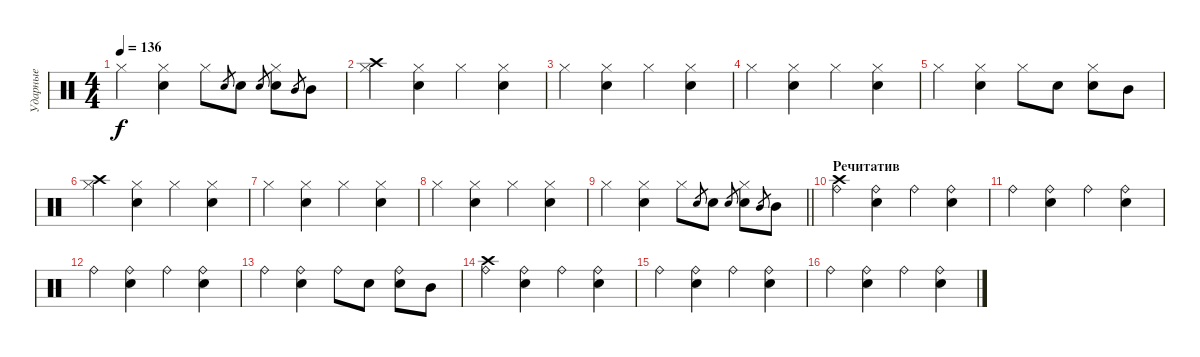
\track ("Ударные" "Ударные") {instrument percussion}
\staff {score}
\articulation defaults
\ts (4 4)
\tempo 136
\clef neutral
\ks c "Hi-Hat (closed)".4{dy f}
("Hi-Hat (closed)" "Snare (hit) 2").4 "Hi-Hat (closed)".8 "Snare (hit) 2".8{gr} "Snare (hit) 2".8 "Snare (hit) 2".8{gr} ("Hi-Hat (closed)" "Snare (hit) 2").8 "Mid Tom (hit)".8{gr} "Mid Tom (hit)".8 |
("Hi-Hat (closed)" "Crash high (hit)").4 ("Hi-Hat (closed)" "Snare (hit) 2").4 "Hi-Hat (closed)".4 ("Hi-Hat (closed)" "Snare (hit) 2").4 |
"Hi-Hat (closed)".4 ("Hi-Hat (closed)" "Snare (hit) 2").4 "Hi-Hat (closed)".4 ("Hi-Hat (closed)" "Snare (hit) 2").4 |
"Hi-Hat (closed)".4 ("Hi-Hat (closed)" "Snare (hit) 2").4 "Hi-Hat (closed)".4 ("Hi-Hat (closed)" "Snare (hit) 2").4 |
"Hi-Hat (closed)".4 ("Hi-Hat (closed)" "Snare (hit) 2").4 "Hi-Hat (closed)".8 "Snare (hit) 2".8 ("Hi-Hat (closed)" "Snare (hit) 2").8 "Mid Tom (hit)".8 |
("Hi-Hat (closed)" "Crash high (hit)").4 ("Hi-Hat (closed)" "Snare (hit) 2").4 "Hi-Hat (closed)".4 ("Hi-Hat (closed)" "Snare (hit) 2").4 |
"Hi-Hat (closed)".4 ("Hi-Hat (closed)" "Snare (hit) 2").4 "Hi-Hat (closed)".4 ("Hi-Hat (closed)" "Snare (hit) 2").4 |
"Hi-Hat (closed)".4 ("Hi-Hat (closed)" "Snare (hit) 2").4 "Hi-Hat (closed)".4 ("Hi-Hat (closed)" "Snare (hit) 2").4 |
\barLineRight lightlight "Hi-Hat (closed)".4
("Hi-Hat (closed)" "Snare (hit) 2").4 "Hi-Hat (closed)".8 "Snare (hit) 2".8{gr} "Snare (hit) 2".8 "Snare (hit) 2".8{gr} ("Hi-Hat (closed)" "Snare (hit) 2").8 "Mid Tom (hit)".8{gr} "Mid Tom (hit)".8 |
\section ("" "Речитатив")
("Ride (bell)" "Crash high (hit)").4 ("Ride (bell)" "Snare (hit) 2").4 "Ride (bell)".4 ("Ride (bell)" "Snare (hit) 2").4 |
"Ride (bell)".4 ("Ride (bell)" "Snare (hit) 2").4 "Ride (bell)".4 ("Ride (bell)" "Snare (hit) 2").4 |
"Ride (bell)".4 ("Ride (bell)" "Snare (hit) 2").4 "Ride (bell)".4 ("Ride (bell)" "Snare (hit) 2").4 |
"Ride (bell)".4 ("Ride (bell)" "Snare (hit) 2").4 "Ride (bell)".8 "Snare (hit) 2".8 ("Ride (bell)" "Snare (hit) 2").8 "Mid Tom (hit)".8 |
("Ride (bell)" "Crash high (hit)").4 ("Ride (bell)" "Snare (hit) 2").4 "Ride (bell)".4 ("Ride (bell)" "Snare (hit) 2").4 |
"Ride (bell)".4 ("Ride (bell)" "Snare (hit) 2").4 "Ride (bell)".4 ("Ride (bell)" "Snare (hit) 2").4 |
"Ride (bell)".4 ("Ride (bell)" "Snare (hit) 2").4 "Ride (bell)".4 ("Ride (bell)" "Snare (hit) 2").4
